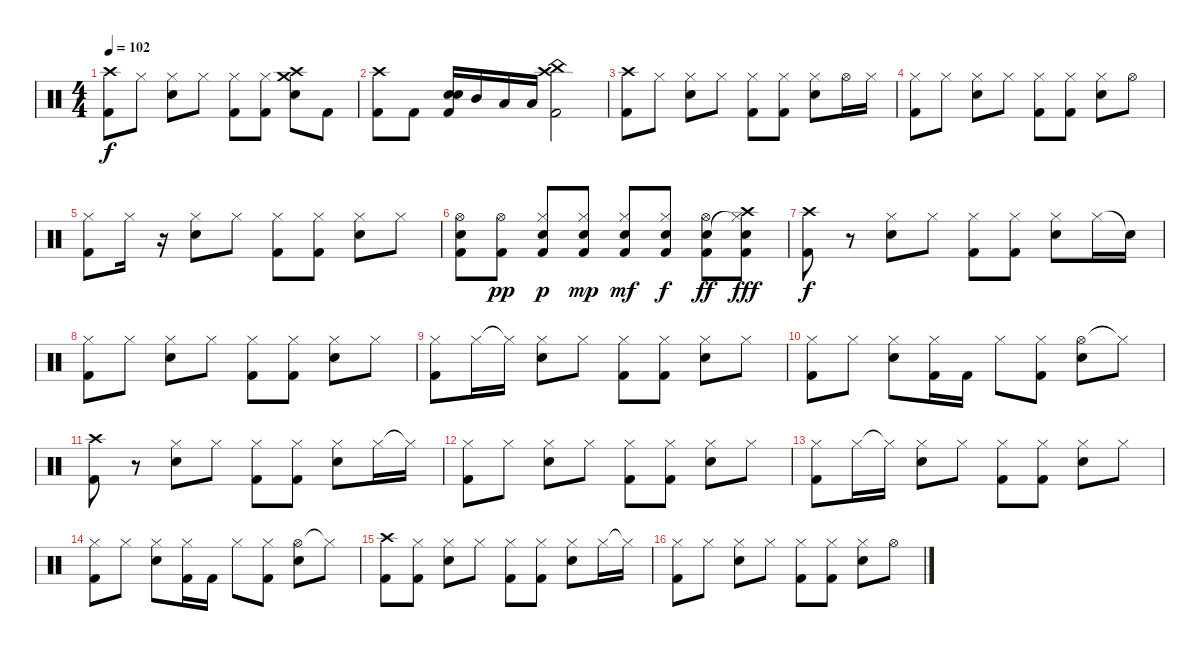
\track "" {instrument percussion}
\staff {score}
\articulation defaults
\ts (4 4)
\tempo 102
\clef neutral
\ks c
("Crash high (hit)" "Kick (hit) 2").8{dy f} "Hi-Hat (closed)".8 ("Hi-Hat (closed)" "Snare (hit) 2").8 "Hi-Hat (closed)".8 ("Hi-Hat (closed)" "Kick (hit) 2").8 ("Hi-Hat (closed)" "Kick (hit) 2").8 ("Snare (hit) 2" "Crash medium (hit)" "Crash high (hit)").8 "Kick (hit) 2".8 |
("Crash high (hit)" "Kick (hit) 2").8 "Kick (hit) 2".8 ("Snare (hit) 2" "Snare (hit) 2" "Kick (hit) 2").16 "Mid Tom (hit)".16 "Low Tom (hit)".16 "Low Tom (hit)".16 ("Crash high (hit)" "China (hit)" "Kick (hit) 2").2 |
("Crash high (hit)" "Kick (hit) 2").8 "Hi-Hat (closed)".8 ("Hi-Hat (closed)" "Snare (hit) 2").8 "Hi-Hat (closed)".8 ("Hi-Hat (closed)" "Kick (hit) 2").8 ("Hi-Hat (closed)" "Kick (hit) 2").8 ("Hi-Hat (closed)" "Snare (hit) 2").8 "Hi-Hat (open)".16 "Hi-Hat (closed)".16 |
("Hi-Hat (closed)" "Kick (hit) 2").8 "Hi-Hat (closed)".8 ("Hi-Hat (closed)" "Snare (hit) 2").8 "Hi-Hat (closed)".8 ("Hi-Hat (closed)" "Kick (hit) 2").8 ("Hi-Hat (closed)" "Kick (hit) 2").8 ("Hi-Hat (closed)" "Snare (hit) 2").8 "Hi-Hat (open)".8 |
("Hi-Hat (closed)" "Kick (hit) 2").8 "Hi-Hat (closed)".16 r.16 ("Hi-Hat (closed)" "Snare (hit) 2").8 "Hi-Hat (closed)".8 ("Hi-Hat (closed)" "Kick (hit) 2").8 ("Hi-Hat (closed)" "Kick (hit) 2").8 ("Hi-Hat (closed)" "Snare (hit) 2").8 "Hi-Hat (closed)".8 |
("Hi-Hat (open)" "Snare (hit) 2" "Kick (hit) 2").8 ("Hi-Hat (open)" "Kick (hit) 2").8{dy pp} ("Hi-Hat (closed)" "Snare (hit) 2" "Kick (hit) 2").8{dy p} ("Hi-Hat (closed)" "Snare (hit) 2" "Kick (hit) 2").8{dy mp} ("Hi-Hat (closed)" "Snare (hit) 2" "Kick (hit) 2").8{dy mf} ("Hi-Hat (closed)" "Snare (hit) 2" "Kick (hit) 2").8{dy f} ("Hi-Hat (open)" "Snare (hit) 2" "Kick (hit) 2").8{dy ff} ("Crash high (hit)" "Hi-Hat (closed)"{t} "Snare (hit) 2" "Kick (hit) 2").8{dy fff} |
("Crash high (hit)" "Kick (hit) 2").8{dy f} r.8 ("Hi-Hat (closed)" "Snare (hit) 2").8 "Hi-Hat (closed)".8 ("Hi-Hat (closed)" "Kick (hit) 2").8 ("Hi-Hat (closed)" "Kick (hit) 2").8 ("Hi-Hat (closed)" "Snare (hit) 2").8 "Hi-Hat (closed)".16 "Snare (hit)"{t}.16 |
("Hi-Hat (closed)" "Kick (hit) 2").8 "Hi-Hat (closed)".8 ("Hi-Hat (closed)" "Snare (hit) 2").8 "Hi-Hat (closed)".8 ("Hi-Hat (closed)" "Kick (hit) 2").8 ("Hi-Hat (closed)" "Kick (hit) 2").8 ("Hi-Hat (closed)" "Snare (hit) 2").8 "Hi-Hat (closed)".8 |
("Hi-Hat (closed)" "Kick (hit) 2").8 "Hi-Hat (closed)".16 "Hi-Hat (closed)"{t}.16 ("Hi-Hat (closed)" "Snare (hit) 2").8 "Hi-Hat (closed)".8 ("Hi-Hat (closed)" "Kick (hit) 2").8 ("Hi-Hat (closed)" "Kick (hit) 2").8 ("Hi-Hat (closed)" "Snare (hit) 2").8 "Hi-Hat (closed)".8 |
("Hi-Hat (closed)" "Kick (hit) 2").8 "Hi-Hat (closed)".8 ("Hi-Hat (closed)" "Snare (hit) 2").8 ("Hi-Hat (closed)" "Kick (hit) 2").16 "Kick (hit) 2".16 "Hi-Hat (closed)".8 ("Hi-Hat (closed)" "Kick (hit) 2").8 ("Hi-Hat (open)" "Snare (hit) 2").8 "Hi-Hat (closed)"{t}.8 |
("Crash high (hit)" "Kick (hit) 2").8 r.8 ("Hi-Hat (closed)" "Snare (hit) 2").8 "Hi-Hat (closed)".8 ("Hi-Hat (closed)" "Kick (hit) 2").8 ("Hi-Hat (closed)" "Kick (hit) 2").8 ("Hi-Hat (closed)" "Snare (hit) 2").8 "Hi-Hat (closed)".16 "Hi-Hat (closed)"{t}.16 |
("Hi-Hat (closed)" "Kick (hit) 2").8 "Hi-Hat (closed)".8 ("Hi-Hat (closed)" "Snare (hit) 2").8 "Hi-Hat (closed)".8 ("Hi-Hat (closed)" "Kick (hit) 2").8 ("Hi-Hat (closed)" "Kick (hit) 2").8 ("Hi-Hat (closed)" "Snare (hit) 2").8 "Hi-Hat (closed)".8 |
("Hi-Hat (closed)" "Kick (hit) 2").8 "Hi-Hat (closed)".16 "Hi-Hat (closed)"{t}.16 ("Hi-Hat (closed)" "Snare (hit) 2").8 "Hi-Hat (closed)".8 ("Hi-Hat (closed)" "Kick (hit) 2").8 ("Hi-Hat (closed)" "Kick (hit) 2").8 ("Hi-Hat (closed)" "Snare (hit) 2").8 "Hi-Hat (closed)".8 |
("Hi-Hat (closed)" "Kick (hit) 2").8 "Hi-Hat (closed)".8 ("Hi-Hat (closed)" "Snare (hit) 2").8 ("Hi-Hat (closed)" "Kick (hit) 2").16 "Kick (hit) 2".16 "Hi-Hat (closed)".8 ("Hi-Hat (closed)" "Kick (hit) 2").8 ("Hi-Hat (open)" "Snare (hit) 2").8 "Hi-Hat (closed)"{t}.8 |
("Crash high (hit)" "Kick (hit) 2").8 ("Hi-Hat (closed)" "Kick (hit) 2").8 ("Hi-Hat (closed)" "Snare (hit) 2").8 "Hi-Hat (closed)".8 ("Hi-Hat (closed)" "Kick (hit) 2").8 ("Hi-Hat (closed)" "Kick (hit) 2").8 ("Hi-Hat (closed)" "Snare (hit) 2").8 "Hi-Hat (closed)".16 "Hi-Hat (closed)"{t}.16 |
("Hi-Hat (closed)" "Kick (hit) 2").8 "Hi-Hat (closed)".8 ("Hi-Hat (closed)" "Snare (hit) 2").8 "Hi-Hat (closed)".8 ("Hi-Hat (closed)" "Kick (hit) 2").8 ("Hi-Hat (closed)" "Kick (hit) 2").8 ("Hi-Hat (closed)" "Snare (hit) 2").8 "Hi-Hat (open)".8
